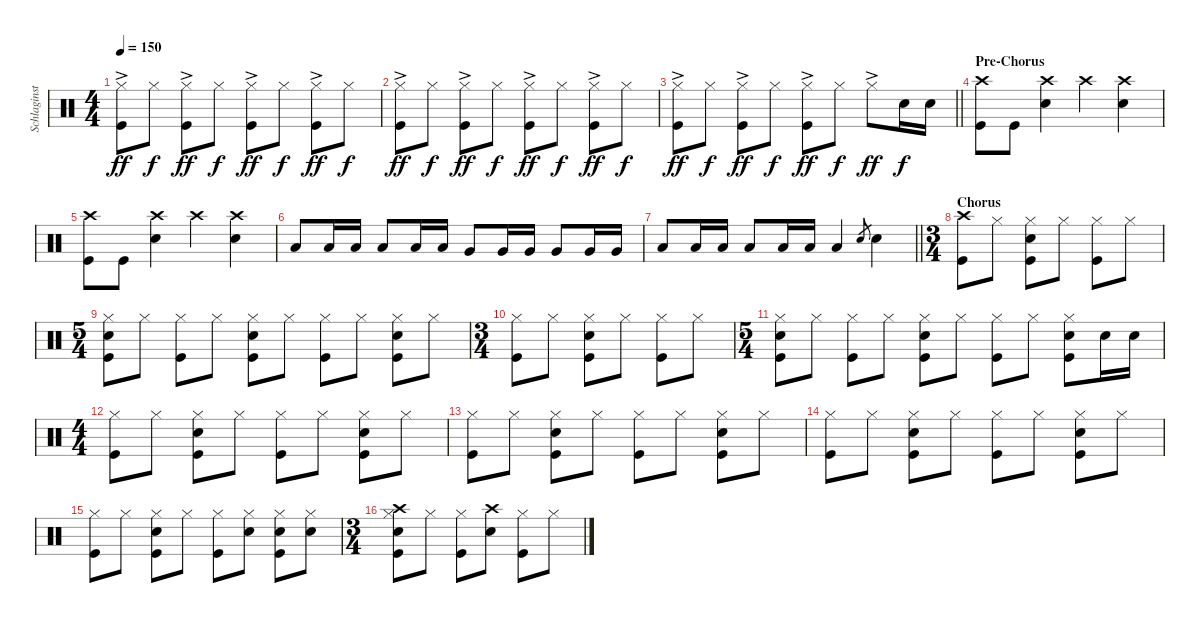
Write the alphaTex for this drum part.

\track ("Schlaginstrumente - Auswahl" "Schlaginst") {instrument percussion}
\staff {score}
\articulation defaults
\ts (4 4)
\tempo 150
\clef neutral
\ks c
("Hi-Hat (closed)"{ac} "Kick (hit)").8{dy ff} "Hi-Hat (closed)".8{dy f} ("Hi-Hat (closed)"{ac} "Kick (hit)").8{dy ff} "Hi-Hat (closed)".8{dy f} ("Hi-Hat (closed)"{ac} "Kick (hit)").8{dy ff} "Hi-Hat (closed)".8{dy f} ("Hi-Hat (closed)"{ac} "Kick (hit)").8{dy ff} "Hi-Hat (closed)".8{dy f} |
("Hi-Hat (closed)"{ac} "Kick (hit)").8{dy ff} "Hi-Hat (closed)".8{dy f} ("Hi-Hat (closed)"{ac} "Kick (hit)").8{dy ff} "Hi-Hat (closed)".8{dy f} ("Hi-Hat (closed)"{ac} "Kick (hit)").8{dy ff} "Hi-Hat (closed)".8{dy f} ("Hi-Hat (closed)"{ac} "Kick (hit)").8{dy ff} "Hi-Hat (closed)".8{dy f} |
\barLineRight lightlight
("Hi-Hat (closed)"{ac} "Kick (hit)").8{dy ff} "Hi-Hat (closed)".8{dy f} ("Hi-Hat (closed)"{ac} "Kick (hit)").8{dy ff} "Hi-Hat (closed)".8{dy f} ("Hi-Hat (closed)"{ac} "Kick (hit)").8{dy ff} "Hi-Hat (closed)".8{dy f} "Hi-Hat (closed)"{ac}.8{dy ff} "Snare (hit) 2".16{dy f} "Snare (hit) 2".16 |
\section ("" "Pre-Chorus")
("Kick (hit)" "Crash high (hit)").8 "Kick (hit)".8 ("Snare (hit) 2" "Crash high (hit)").4 "Crash high (hit)".4 ("Crash high (hit)" "Snare (hit) 2").4 |
("Kick (hit)" "Crash high (hit)").8 "Kick (hit)".8 ("Snare (hit) 2" "Crash high (hit)").4 "Crash high (hit)".4 ("Crash high (hit)" "Snare (hit) 2").4 |
"Low Tom (hit)".8 "Low Tom (hit)".16 "Low Tom (hit)".16 "Low Tom (hit)".8 "Low Tom (hit)".16 "Low Tom (hit)".16 "Very Low Tom (hit)".8 "Very Low Tom (hit)".16 "Very Low Tom (hit)".16 "Very Low Tom (hit)".8 "Very Low Tom (hit)".16 "Very Low Tom (hit)".16 |
\barLineRight lightlight "Low Floor Tom (hit)".8 "Low Floor Tom (hit)".16 "Low Floor Tom (hit)".16 "Low Floor Tom (hit)".8 "Low Floor Tom (hit)".16 "Low Floor Tom (hit)".16 "Low Floor Tom (hit)".4 "Snare (hit) 2".8{gr} "Snare (hit) 2".4
|
\ts (3 4)
\section ("" "Chorus")
("Kick (hit)" "Crash high (hit)").8 "Hi-Hat (closed)".8 ("Hi-Hat (closed)" "Snare (hit) 2" "Kick (hit)").8 "Hi-Hat (closed)".8 ("Hi-Hat (closed)" "Kick (hit)").8 "Hi-Hat (closed)".8 |
\ts (5 4)
("Hi-Hat (closed)" "Snare (hit) 2" "Kick (hit)").8 "Hi-Hat (closed)".8 ("Hi-Hat (closed)" "Kick (hit)").8 "Hi-Hat (closed)".8 ("Hi-Hat (closed)" "Snare (hit) 2" "Kick (hit)").8 "Hi-Hat (closed)".8 ("Hi-Hat (closed)" "Kick (hit)").8 "Hi-Hat (closed)".8 ("Hi-Hat (closed)" "Snare (hit) 2" "Kick (hit)").8 "Hi-Hat (closed)".8 |
\ts (3 4)
("Kick (hit)" "Hi-Hat (closed)").8 "Hi-Hat (closed)".8 ("Hi-Hat (closed)" "Snare (hit) 2" "Kick (hit)").8 "Hi-Hat (closed)".8 ("Hi-Hat (closed)" "Kick (hit)").8 "Hi-Hat (closed)".8 |
\ts (5 4)
("Hi-Hat (closed)" "Snare (hit) 2" "Kick (hit)").8 "Hi-Hat (closed)".8 ("Hi-Hat (closed)" "Kick (hit)").8 "Hi-Hat (closed)".8 ("Hi-Hat (closed)" "Snare (hit) 2" "Kick (hit)").8 "Hi-Hat (closed)".8 ("Hi-Hat (closed)" "Kick (hit)").8 "Hi-Hat (closed)".8 ("Hi-Hat (closed)" "Snare (hit) 2" "Kick (hit)").8 "Snare (hit) 2".16 "Snare (hit) 2".16 |
\ts (4 4)
("Kick (hit)" "Hi-Hat (closed)").8 "Hi-Hat (closed)".8 ("Hi-Hat (closed)" "Snare (hit) 2" "Kick (hit)").8 "Hi-Hat (closed)".8 ("Hi-Hat (closed)" "Kick (hit)").8 "Hi-Hat (closed)".8 ("Hi-Hat (closed)" "Snare (hit) 2" "Kick (hit)").8 "Hi-Hat (closed)".8 |
("Kick (hit)" "Hi-Hat (closed)").8 "Hi-Hat (closed)".8 ("Hi-Hat (closed)" "Snare (hit) 2" "Kick (hit)").8 "Hi-Hat (closed)".8 ("Hi-Hat (closed)" "Kick (hit)").8 "Hi-Hat (closed)".8 ("Hi-Hat (closed)" "Snare (hit) 2" "Kick (hit)").8 "Hi-Hat (closed)".8 |
("Kick (hit)" "Hi-Hat (closed)").8 "Hi-Hat (closed)".8 ("Hi-Hat (closed)" "Snare (hit) 2" "Kick (hit)").8 "Hi-Hat (closed)".8 ("Hi-Hat (closed)" "Kick (hit)").8 "Hi-Hat (closed)".8 ("Hi-Hat (closed)" "Snare (hit) 2" "Kick (hit)").8 "Hi-Hat (closed)".8 |
("Kick (hit)" "Hi-Hat (closed)").8 "Hi-Hat (closed)".8 ("Hi-Hat (closed)" "Snare (hit) 2" "Kick (hit)").8 "Hi-Hat (closed)".8 ("Hi-Hat (closed)" "Kick (hit)").8 ("Hi-Hat (closed)" "Snare (hit) 2").8 ("Hi-Hat (closed)" "Snare (hit) 2" "Kick (hit)").8 ("Hi-Hat (closed)" "Snare (hit) 2").8 |
\ts (3 4)
("Kick (hit)" "Hi-Hat (closed)" "Crash high (hit)" "Snare (hit) 2").8 "Hi-Hat (closed)".8 ("Hi-Hat (closed)" "Kick (hit)").8 ("Crash high (hit)" "Snare (hit) 2").8 ("Hi-Hat (closed)" "Kick (hit)").8 "Hi-Hat (closed)".8
